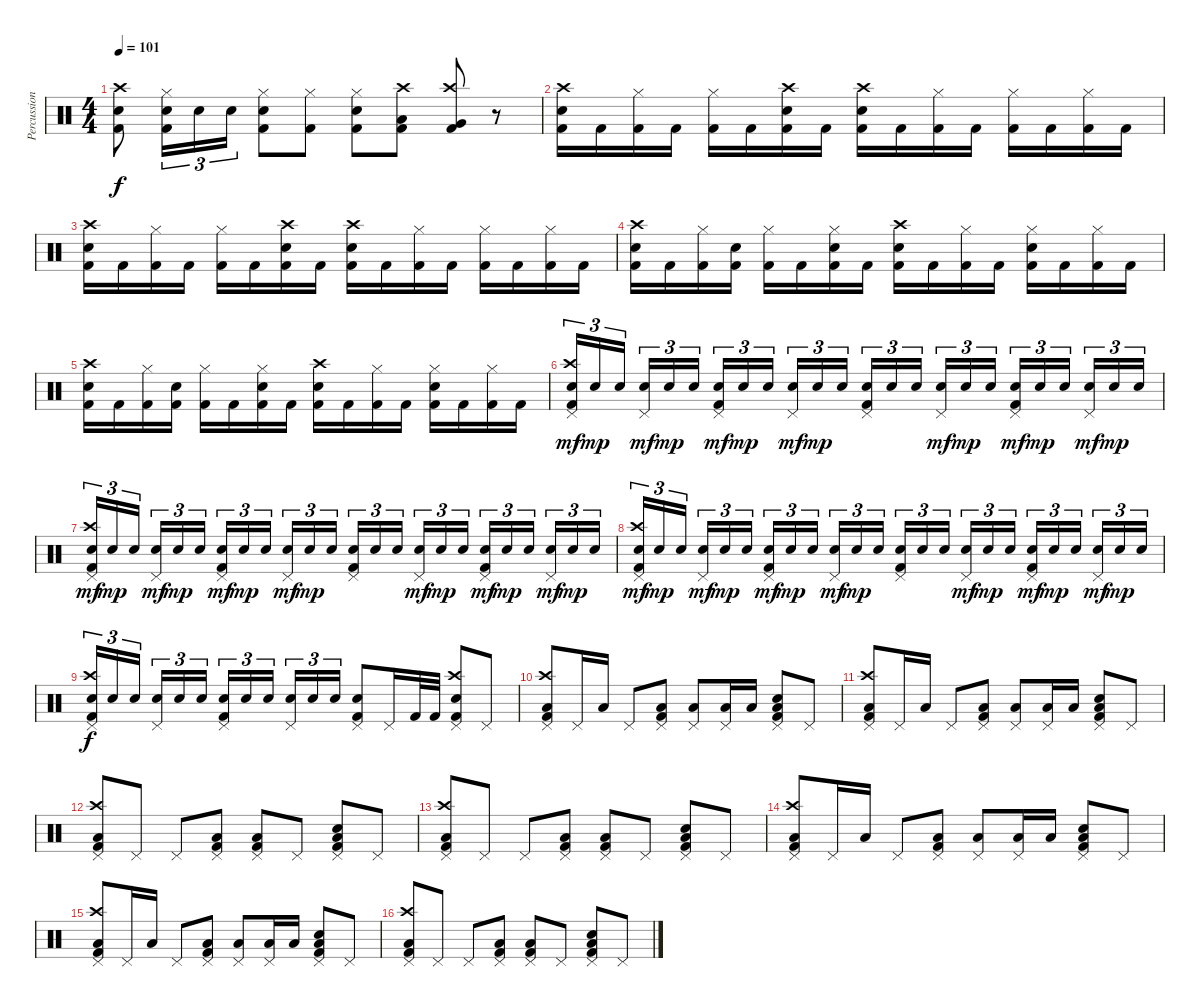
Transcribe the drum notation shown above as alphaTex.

\track ("Percussion" "Percussion") {instrument percussion}
\staff {score}
\articulation defaults
\ts (4 4)
\tempo 101
\clef neutral
\ks c
("Kick (hit) 2" "Snare (hit) 2" "Crash high (hit)").8{dy f} ("Kick (hit) 2" "Snare (hit) 2" "Hi-Hat (closed)").16{tu (3 2)} "Snare (hit) 2".16{tu (3 2)} "Snare (hit) 2".16{tu (3 2)} ("Kick (hit) 2" "Snare (hit) 2" "Hi-Hat (closed)").8 ("Kick (hit) 2" "Hi-Hat (closed)").8 ("Kick (hit) 2" "Snare (hit) 2" "Hi-Hat (closed)").8 ("Kick (hit) 2" "Low Tom (hit)" "Crash high (hit)").8 ("Kick (hit) 2" "Very Low Tom (hit)" "Crash high (hit)").8 r.8 |
("Kick (hit) 2" "Snare (hit) 2" "Crash high (hit)").16 "Kick (hit) 2".16 ("Kick (hit) 2" "Hi-Hat (closed)").16 "Kick (hit) 2".16 ("Kick (hit) 2" "Hi-Hat (closed)").16 "Kick (hit) 2".16 ("Kick (hit) 2" "Snare (hit) 2" "Crash high (hit)").16 "Kick (hit) 2".16 ("Kick (hit) 2" "Snare (hit) 2" "Crash high (hit)").16 "Kick (hit) 2".16 ("Kick (hit) 2" "Hi-Hat (closed)").16 "Kick (hit) 2".16 ("Kick (hit) 2" "Hi-Hat (closed)").16 "Kick (hit) 2".16 ("Kick (hit) 2" "Hi-Hat (closed)").16 "Kick (hit) 2".16 |
("Kick (hit) 2" "Snare (hit) 2" "Crash high (hit)").16 "Kick (hit) 2".16 ("Kick (hit) 2" "Hi-Hat (closed)").16 "Kick (hit) 2".16 ("Kick (hit) 2" "Hi-Hat (closed)").16 "Kick (hit) 2".16 ("Kick (hit) 2" "Snare (hit) 2" "Crash high (hit)").16 "Kick (hit) 2".16 ("Kick (hit) 2" "Snare (hit) 2" "Crash high (hit)").16 "Kick (hit) 2".16 ("Kick (hit) 2" "Hi-Hat (closed)").16 "Kick (hit) 2".16 ("Kick (hit) 2" "Hi-Hat (closed)").16 "Kick (hit) 2".16 ("Kick (hit) 2" "Hi-Hat (closed)").16 "Kick (hit) 2".16 |
("Kick (hit) 2" "Snare (hit) 2" "Crash high (hit)").16 "Kick (hit) 2".16 ("Kick (hit) 2" "Hi-Hat (closed)").16 ("Kick (hit) 2" "Snare (hit) 2").16 ("Kick (hit) 2" "Hi-Hat (closed)").16 "Kick (hit) 2".16 ("Kick (hit) 2" "Snare (hit) 2" "Hi-Hat (closed)").16 "Kick (hit) 2".16 ("Kick (hit) 2" "Snare (hit) 2" "Crash high (hit)").16 "Kick (hit) 2".16 ("Kick (hit) 2" "Hi-Hat (closed)").16 "Kick (hit) 2".16 ("Kick (hit) 2" "Snare (hit) 2" "Hi-Hat (closed)").16 "Kick (hit) 2".16 ("Kick (hit) 2" "Hi-Hat (closed)").16 "Kick (hit) 2".16 |
("Kick (hit) 2" "Snare (hit) 2" "Crash high (hit)").16 "Kick (hit) 2".16 ("Kick (hit) 2" "Hi-Hat (closed)").16 ("Kick (hit) 2" "Snare (hit) 2").16 ("Kick (hit) 2" "Hi-Hat (closed)").16 "Kick (hit) 2".16 ("Kick (hit) 2" "Snare (hit) 2" "Hi-Hat (closed)").16 "Kick (hit) 2".16 ("Kick (hit) 2" "Snare (hit) 2" "Crash high (hit)").16 "Kick (hit) 2".16 ("Kick (hit) 2" "Hi-Hat (closed)").16 "Kick (hit) 2".16 ("Kick (hit) 2" "Snare (hit) 2" "Hi-Hat (closed)").16 "Kick (hit) 2".16 ("Kick (hit) 2" "Hi-Hat (closed)").16 "Kick (hit) 2".16 |
("Kick (hit) 2" "Snare (hit) 2" "Pedal Hi-Hat (hit)" "Crash high (hit)").16{tu (3 2) dy mf} "Snare (hit) 2".16{tu (3 2) dy mp} "Snare (hit) 2".16{tu (3 2)} ("Snare (hit) 2" "Pedal Hi-Hat (hit)").16{tu (3 2) dy mf} "Snare (hit) 2".16{tu (3 2) dy mp} "Snare (hit) 2".16{tu (3 2)} ("Kick (hit) 2" "Snare (hit) 2" "Pedal Hi-Hat (hit)").16{tu (3 2) dy mf} "Snare (hit) 2".16{tu (3 2) dy mp} "Snare (hit) 2".16{tu (3 2)} ("Snare (hit) 2" "Pedal Hi-Hat (hit)").16{tu (3 2) dy mf} "Snare (hit) 2".16{tu (3 2) dy mp} "Snare (hit) 2".16{tu (3 2)} ("Kick (hit) 2" "Snare (hit) 2" "Pedal Hi-Hat (hit)").16{tu (3 2)} "Snare (hit) 2".16{tu (3 2)} "Snare (hit) 2".16{tu (3 2)} ("Snare (hit) 2" "Pedal Hi-Hat (hit)").16{tu (3 2) dy mf} "Snare (hit) 2".16{tu (3 2) dy mp} "Snare (hit) 2".16{tu (3 2)} ("Kick (hit) 2" "Snare (hit) 2" "Pedal Hi-Hat (hit)").16{tu (3 2) dy mf} "Snare (hit) 2".16{tu (3 2) dy mp} "Snare (hit) 2".16{tu (3 2)} ("Snare (hit) 2" "Pedal Hi-Hat (hit)").16{tu (3 2) dy mf} "Snare (hit) 2".16{tu (3 2) dy mp} "Snare (hit) 2".16{tu (3 2)} |
("Kick (hit) 2" "Snare (hit) 2" "Pedal Hi-Hat (hit)" "Crash high (hit)").16{tu (3 2) dy mf} "Snare (hit) 2".16{tu (3 2) dy mp} "Snare (hit) 2".16{tu (3 2)} ("Snare (hit) 2" "Pedal Hi-Hat (hit)").16{tu (3 2) dy mf} "Snare (hit) 2".16{tu (3 2) dy mp} "Snare (hit) 2".16{tu (3 2)} ("Kick (hit) 2" "Snare (hit) 2" "Pedal Hi-Hat (hit)").16{tu (3 2) dy mf} "Snare (hit) 2".16{tu (3 2) dy mp} "Snare (hit) 2".16{tu (3 2)} ("Snare (hit) 2" "Pedal Hi-Hat (hit)").16{tu (3 2) dy mf} "Snare (hit) 2".16{tu (3 2) dy mp} "Snare (hit) 2".16{tu (3 2)} ("Kick (hit) 2" "Snare (hit) 2" "Pedal Hi-Hat (hit)").16{tu (3 2)} "Snare (hit) 2".16{tu (3 2)} "Snare (hit) 2".16{tu (3 2)} ("Snare (hit) 2" "Pedal Hi-Hat (hit)").16{tu (3 2) dy mf} "Snare (hit) 2".16{tu (3 2) dy mp} "Snare (hit) 2".16{tu (3 2)} ("Kick (hit) 2" "Snare (hit) 2" "Pedal Hi-Hat (hit)").16{tu (3 2) dy mf} "Snare (hit) 2".16{tu (3 2) dy mp} "Snare (hit) 2".16{tu (3 2)} ("Snare (hit) 2" "Pedal Hi-Hat (hit)").16{tu (3 2) dy mf} "Snare (hit) 2".16{tu (3 2) dy mp} "Snare (hit) 2".16{tu (3 2)} |
("Kick (hit) 2" "Snare (hit) 2" "Pedal Hi-Hat (hit)" "Crash high (hit)").16{tu (3 2) dy mf} "Snare (hit) 2".16{tu (3 2) dy mp} "Snare (hit) 2".16{tu (3 2)} ("Snare (hit) 2" "Pedal Hi-Hat (hit)").16{tu (3 2) dy mf} "Snare (hit) 2".16{tu (3 2) dy mp} "Snare (hit) 2".16{tu (3 2)} ("Kick (hit) 2" "Snare (hit) 2" "Pedal Hi-Hat (hit)").16{tu (3 2) dy mf} "Snare (hit) 2".16{tu (3 2) dy mp} "Snare (hit) 2".16{tu (3 2)} ("Snare (hit) 2" "Pedal Hi-Hat (hit)").16{tu (3 2) dy mf} "Snare (hit) 2".16{tu (3 2) dy mp} "Snare (hit) 2".16{tu (3 2)} ("Kick (hit) 2" "Snare (hit) 2" "Pedal Hi-Hat (hit)").16{tu (3 2)} "Snare (hit) 2".16{tu (3 2)} "Snare (hit) 2".16{tu (3 2)} ("Snare (hit) 2" "Pedal Hi-Hat (hit)").16{tu (3 2) dy mf} "Snare (hit) 2".16{tu (3 2) dy mp} "Snare (hit) 2".16{tu (3 2)} ("Kick (hit) 2" "Snare (hit) 2" "Pedal Hi-Hat (hit)").16{tu (3 2) dy mf} "Snare (hit) 2".16{tu (3 2) dy mp} "Snare (hit) 2".16{tu (3 2)} ("Snare (hit) 2" "Pedal Hi-Hat (hit)").16{tu (3 2) dy mf} "Snare (hit) 2".16{tu (3 2) dy mp} "Snare (hit) 2".16{tu (3 2)} |
("Kick (hit) 2" "Snare (hit) 2" "Pedal Hi-Hat (hit)" "Crash high (hit)").16{tu (3 2) dy f} "Snare (hit) 2".16{tu (3 2)} "Snare (hit) 2".16{tu (3 2)} ("Snare (hit) 2" "Pedal Hi-Hat (hit)").16{tu (3 2)} "Snare (hit) 2".16{tu (3 2)} "Snare (hit) 2".16{tu (3 2)} ("Kick (hit) 2" "Snare (hit) 2" "Pedal Hi-Hat (hit)").16{tu (3 2)} "Snare (hit) 2".16{tu (3 2)} "Snare (hit) 2".16{tu (3 2)} ("Snare (hit) 2" "Pedal Hi-Hat (hit)").16{tu (3 2)} "Snare (hit) 2".16{tu (3 2)} "Snare (hit) 2".16{tu (3 2)} ("Kick (hit) 2" "Snare (hit) 2" "Pedal Hi-Hat (hit)").8 "Pedal Hi-Hat (hit)".16 "Kick (hit) 2".32 "Kick (hit) 2".32 ("Kick (hit) 2" "Snare (hit) 2" "Pedal Hi-Hat (hit)" "Crash high (hit)").8 "Pedal Hi-Hat (hit)".8 |
("Kick (hit) 2" "Low Floor Tom (hit)" "Pedal Hi-Hat (hit)" "Crash high (hit)").8 "Pedal Hi-Hat (hit)".16 "Low Floor Tom (hit)".16 "Pedal Hi-Hat (hit)".8 ("Kick (hit) 2" "Low Floor Tom (hit)" "Pedal Hi-Hat (hit)").8 ("Low Floor Tom (hit)" "Pedal Hi-Hat (hit)").8 ("Low Floor Tom (hit)" "Pedal Hi-Hat (hit)").16 "Low Floor Tom (hit)".16 ("Kick (hit) 2" "Snare (hit) 2" "Low Floor Tom (hit)" "Pedal Hi-Hat (hit)").8 "Pedal Hi-Hat (hit)".8 |
("Kick (hit) 2" "Low Floor Tom (hit)" "Pedal Hi-Hat (hit)" "Crash high (hit)").8 "Pedal Hi-Hat (hit)".16 "Low Floor Tom (hit)".16 "Pedal Hi-Hat (hit)".8 ("Kick (hit) 2" "Low Floor Tom (hit)" "Pedal Hi-Hat (hit)").8 ("Low Floor Tom (hit)" "Pedal Hi-Hat (hit)").8 ("Low Floor Tom (hit)" "Pedal Hi-Hat (hit)").16 "Low Floor Tom (hit)".16 ("Kick (hit) 2" "Snare (hit) 2" "Low Floor Tom (hit)" "Pedal Hi-Hat (hit)").8 "Pedal Hi-Hat (hit)".8 |
("Kick (hit) 2" "Low Floor Tom (hit)" "Pedal Hi-Hat (hit)" "Crash high (hit)").8 "Pedal Hi-Hat (hit)".8 "Pedal Hi-Hat (hit)".8 ("Kick (hit) 2" "Low Floor Tom (hit)" "Pedal Hi-Hat (hit)").8 ("Kick (hit) 2" "Low Floor Tom (hit)" "Pedal Hi-Hat (hit)").8 "Pedal Hi-Hat (hit)".8 ("Kick (hit) 2" "Snare (hit) 2" "Low Floor Tom (hit)" "Pedal Hi-Hat (hit)").8 "Pedal Hi-Hat (hit)".8 |
("Kick (hit) 2" "Low Floor Tom (hit)" "Pedal Hi-Hat (hit)" "Crash high (hit)").8 "Pedal Hi-Hat (hit)".8 "Pedal Hi-Hat (hit)".8 ("Kick (hit) 2" "Low Floor Tom (hit)" "Pedal Hi-Hat (hit)").8 ("Kick (hit) 2" "Low Floor Tom (hit)" "Pedal Hi-Hat (hit)").8 "Pedal Hi-Hat (hit)".8 ("Kick (hit) 2" "Snare (hit) 2" "Low Floor Tom (hit)" "Pedal Hi-Hat (hit)").8 "Pedal Hi-Hat (hit)".8 |
("Kick (hit) 2" "Low Floor Tom (hit)" "Pedal Hi-Hat (hit)" "Crash high (hit)").8 "Pedal Hi-Hat (hit)".16 "Low Floor Tom (hit)".16 "Pedal Hi-Hat (hit)".8 ("Kick (hit) 2" "Low Floor Tom (hit)" "Pedal Hi-Hat (hit)").8 ("Low Floor Tom (hit)" "Pedal Hi-Hat (hit)").8 ("Low Floor Tom (hit)" "Pedal Hi-Hat (hit)").16 "Low Floor Tom (hit)".16 ("Kick (hit) 2" "Snare (hit) 2" "Low Floor Tom (hit)" "Pedal Hi-Hat (hit)").8 "Pedal Hi-Hat (hit)".8 |
("Kick (hit) 2" "Low Floor Tom (hit)" "Pedal Hi-Hat (hit)" "Crash high (hit)").8 "Pedal Hi-Hat (hit)".16 "Low Floor Tom (hit)".16 "Pedal Hi-Hat (hit)".8 ("Kick (hit) 2" "Low Floor Tom (hit)" "Pedal Hi-Hat (hit)").8 ("Low Floor Tom (hit)" "Pedal Hi-Hat (hit)").8 ("Low Floor Tom (hit)" "Pedal Hi-Hat (hit)").16 "Low Floor Tom (hit)".16 ("Kick (hit) 2" "Snare (hit) 2" "Low Floor Tom (hit)" "Pedal Hi-Hat (hit)").8 "Pedal Hi-Hat (hit)".8 |
("Kick (hit) 2" "Low Floor Tom (hit)" "Pedal Hi-Hat (hit)" "Crash high (hit)").8 "Pedal Hi-Hat (hit)".8 "Pedal Hi-Hat (hit)".8 ("Kick (hit) 2" "Low Floor Tom (hit)" "Pedal Hi-Hat (hit)").8 ("Kick (hit) 2" "Low Floor Tom (hit)" "Pedal Hi-Hat (hit)").8 "Pedal Hi-Hat (hit)".8 ("Kick (hit) 2" "Snare (hit) 2" "Low Floor Tom (hit)" "Pedal Hi-Hat (hit)").8 "Pedal Hi-Hat (hit)".8
